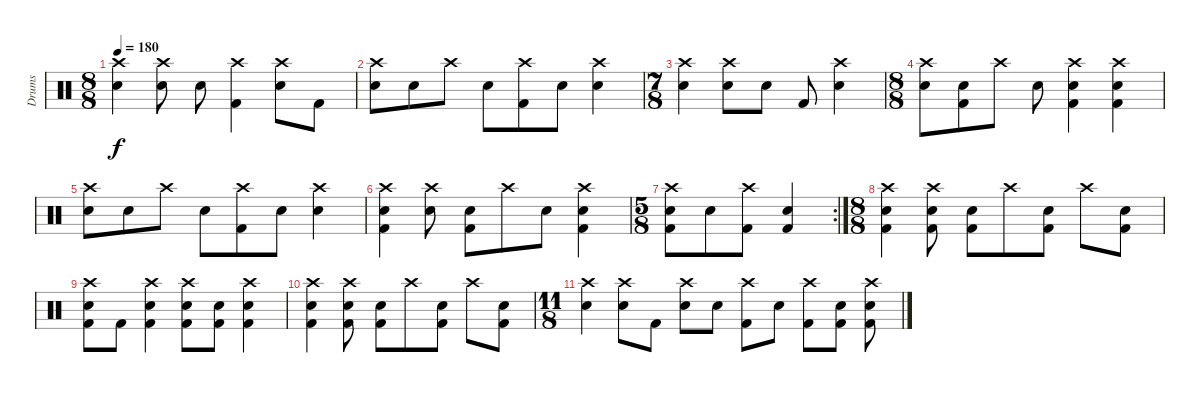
\track ("Drums" "Drums") {instrument percussion}
\staff {score}
\articulation defaults
\ts (8 8)
\tempo 180
\clef neutral
\ks c
("Crash high (hit)" "Electric Snare (hit)").4{dy f} ("Crash high (hit)" "Electric Snare (hit)").8 "Electric Snare (hit)".8 ("Crash high (hit)" "Kick (hit) 2").4 ("Crash high (hit)" "Electric Snare (hit)").8 "Kick (hit) 2".8 |
("Crash high (hit)" "Electric Snare (hit)").8 "Electric Snare (hit)".8 "Crash high (hit)".8 "Electric Snare (hit)".8 ("Crash high (hit)" "Kick (hit) 2").8 "Electric Snare (hit)".8 ("Crash high (hit)" "Electric Snare (hit)").4 |
\ts (7 8)
("Crash high (hit)" "Electric Snare (hit)").4 ("Crash high (hit)" "Electric Snare (hit)").8 "Electric Snare (hit)".8 "Kick (hit) 2".8 ("Crash high (hit)" "Electric Snare (hit)").4 |
\ts (8 8)
("Crash high (hit)" "Electric Snare (hit)").8 ("Electric Snare (hit)" "Kick (hit) 2").8 "Crash high (hit)".8 "Electric Snare (hit)".8 ("Crash high (hit)" "Electric Snare (hit)" "Kick (hit) 2").4 ("Crash high (hit)" "Electric Snare (hit)" "Kick (hit) 2").4 |
("Crash high (hit)" "Electric Snare (hit)").8 "Electric Snare (hit)".8 "Crash high (hit)".8 "Electric Snare (hit)".8 ("Crash high (hit)" "Kick (hit) 2").8 "Electric Snare (hit)".8 ("Crash high (hit)" "Electric Snare (hit)").4 |
("Crash high (hit)" "Electric Snare (hit)" "Kick (hit) 2").4 ("Crash high (hit)" "Electric Snare (hit)").8 ("Electric Snare (hit)" "Kick (hit) 2").8 "Crash high (hit)".8 "Electric Snare (hit)".8 ("Crash high (hit)" "Electric Snare (hit)" "Kick (hit) 2").4 |
\rc 2
\ts (5 8)
("Crash high (hit)" "Electric Snare (hit)" "Kick (hit) 2").8 "Electric Snare (hit)".8 ("Crash high (hit)" "Kick (hit) 2").8 ("Electric Snare (hit)" "Kick (hit) 2").4 |
\ts (8 8)
("Crash high (hit)" "Electric Snare (hit)" "Kick (hit) 2").4 ("Crash high (hit)" "Electric Snare (hit)" "Kick (hit) 2").8 ("Electric Snare (hit)" "Kick (hit) 2").8 "Crash high (hit)".8 ("Electric Snare (hit)" "Kick (hit) 2").8 "Crash high (hit)".8 ("Electric Snare (hit)" "Kick (hit) 2").8 |
("Crash high (hit)" "Electric Snare (hit)" "Kick (hit) 2").8 "Kick (hit) 2".8 ("Crash high (hit)" "Electric Snare (hit)" "Kick (hit) 2").4 ("Crash high (hit)" "Electric Snare (hit)" "Kick (hit) 2").8 ("Electric Snare (hit)" "Kick (hit) 2").8 ("Crash high (hit)" "Electric Snare (hit)" "Kick (hit) 2").4 |
("Crash high (hit)" "Electric Snare (hit)" "Kick (hit) 2").4 ("Crash high (hit)" "Electric Snare (hit)" "Kick (hit) 2").8 ("Electric Snare (hit)" "Kick (hit) 2").8 "Crash high (hit)".8 ("Electric Snare (hit)" "Kick (hit) 2").8 "Crash high (hit)".8 ("Electric Snare (hit)" "Kick (hit) 2").8 |
\ts (11 8)
("Crash high (hit)" "Electric Snare (hit)").4 ("Crash high (hit)" "Electric Snare (hit)").8 "Kick (hit) 2".8 ("Crash high (hit)" "Electric Snare (hit)").8 "Electric Snare (hit)".8 ("Crash high (hit)" "Kick (hit) 2").8 "Electric Snare (hit)".8 ("Crash high (hit)" "Kick (hit) 2").8 ("Electric Snare (hit)" "Kick (hit) 2").8 ("Crash high (hit)" "Electric Snare (hit)" "Kick (hit) 2").8
